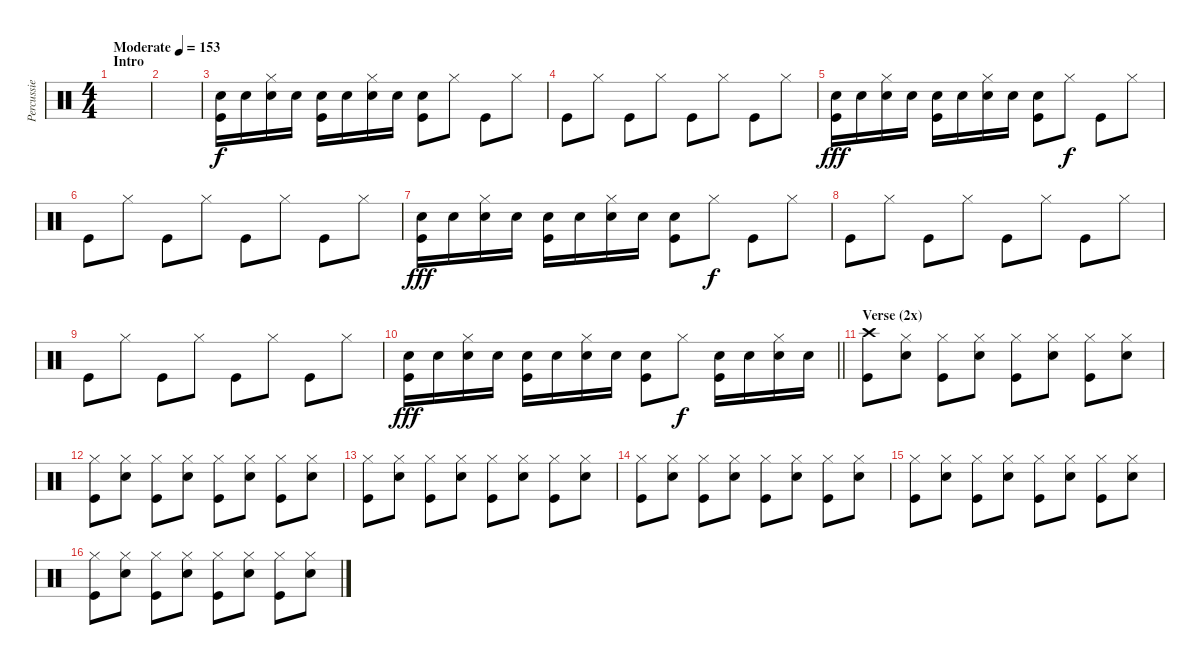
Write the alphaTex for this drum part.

\track ("Percussie George Schwindt" "Percussie ") {instrument percussion}
\staff {score}
\articulation defaults
\ts (4 4)
\section ("" "Intro")
\tempo (153 "Moderate")
\clef neutral
\ks c
|
|
("Electric Snare (hit)" "Kick (hit)").16 "Electric Snare (hit)".16 ("Electric Snare (hit)" "Hi-Hat (closed)").16 "Electric Snare (hit)".16 ("Electric Snare (hit)" "Kick (hit)").16 "Electric Snare (hit)".16 ("Electric Snare (hit)" "Hi-Hat (closed)").16 "Electric Snare (hit)".16 ("Electric Snare (hit)" "Kick (hit)").8 "Hi-Hat (closed)".8{dy f} "Kick (hit)".8 "Hi-Hat (closed)".8 |
"Kick (hit)".8 "Hi-Hat (closed)".8 "Kick (hit)".8 "Hi-Hat (closed)".8 "Kick (hit)".8 "Hi-Hat (closed)".8 "Kick (hit)".8 "Hi-Hat (closed)".8 |
("Electric Snare (hit)" "Kick (hit)").16{dy fff} "Electric Snare (hit)".16 ("Electric Snare (hit)" "Hi-Hat (closed)").16 "Electric Snare (hit)".16 ("Electric Snare (hit)" "Kick (hit)").16 "Electric Snare (hit)".16 ("Electric Snare (hit)" "Hi-Hat (closed)").16 "Electric Snare (hit)".16 ("Electric Snare (hit)" "Kick (hit)").8 "Hi-Hat (closed)".8{dy f} "Kick (hit)".8 "Hi-Hat (closed)".8 |
"Kick (hit)".8 "Hi-Hat (closed)".8 "Kick (hit)".8 "Hi-Hat (closed)".8 "Kick (hit)".8 "Hi-Hat (closed)".8 "Kick (hit)".8 "Hi-Hat (closed)".8 |
("Electric Snare (hit)" "Kick (hit)").16{dy fff} "Electric Snare (hit)".16 ("Electric Snare (hit)" "Hi-Hat (closed)").16 "Electric Snare (hit)".16 ("Electric Snare (hit)" "Kick (hit)").16 "Electric Snare (hit)".16 ("Electric Snare (hit)" "Hi-Hat (closed)").16 "Electric Snare (hit)".16 ("Electric Snare (hit)" "Kick (hit)").8 "Hi-Hat (closed)".8{dy f} "Kick (hit)".8 "Hi-Hat (closed)".8 |
"Kick (hit)".8 "Hi-Hat (closed)".8 "Kick (hit)".8 "Hi-Hat (closed)".8 "Kick (hit)".8 "Hi-Hat (closed)".8 "Kick (hit)".8 "Hi-Hat (closed)".8 |
"Kick (hit)".8 "Hi-Hat (closed)".8 "Kick (hit)".8 "Hi-Hat (closed)".8 "Kick (hit)".8 "Hi-Hat (closed)".8 "Kick (hit)".8 "Hi-Hat (closed)".8 |
\barLineRight lightlight
("Electric Snare (hit)" "Kick (hit)").16{dy fff} "Electric Snare (hit)".16 ("Electric Snare (hit)" "Hi-Hat (closed)").16 "Electric Snare (hit)".16 ("Electric Snare (hit)" "Kick (hit)").16 "Electric Snare (hit)".16 ("Electric Snare (hit)" "Hi-Hat (closed)").16 "Electric Snare (hit)".16 ("Electric Snare (hit)" "Kick (hit)").8 "Hi-Hat (closed)".8{dy f} ("Electric Snare (hit)" "Kick (hit)").16 "Electric Snare (hit)".16 ("Electric Snare (hit)" "Hi-Hat (closed)").16 "Electric Snare (hit)".16 |
\section ("" "Verse (2x)")
("Crash high (hit)" "Kick (hit)").8 ("Electric Snare (hit)" "Hi-Hat (closed)").8 ("Hi-Hat (closed)" "Kick (hit)").8 ("Electric Snare (hit)" "Hi-Hat (closed)").8 ("Hi-Hat (closed)" "Kick (hit)").8 ("Electric Snare (hit)" "Hi-Hat (closed)").8 ("Hi-Hat (closed)" "Kick (hit)").8 ("Electric Snare (hit)" "Hi-Hat (closed)").8 |
("Hi-Hat (closed)" "Kick (hit)").8 ("Electric Snare (hit)" "Hi-Hat (closed)").8 ("Hi-Hat (closed)" "Kick (hit)").8 ("Electric Snare (hit)" "Hi-Hat (closed)").8 ("Hi-Hat (closed)" "Kick (hit)").8 ("Electric Snare (hit)" "Hi-Hat (closed)").8 ("Hi-Hat (closed)" "Kick (hit)").8 ("Electric Snare (hit)" "Hi-Hat (closed)").8 |
("Hi-Hat (closed)" "Kick (hit)").8 ("Electric Snare (hit)" "Hi-Hat (closed)").8 ("Hi-Hat (closed)" "Kick (hit)").8 ("Electric Snare (hit)" "Hi-Hat (closed)").8 ("Hi-Hat (closed)" "Kick (hit)").8 ("Electric Snare (hit)" "Hi-Hat (closed)").8 ("Hi-Hat (closed)" "Kick (hit)").8 ("Electric Snare (hit)" "Hi-Hat (closed)").8 |
("Hi-Hat (closed)" "Kick (hit)").8 ("Electric Snare (hit)" "Hi-Hat (closed)").8 ("Hi-Hat (closed)" "Kick (hit)").8 ("Electric Snare (hit)" "Hi-Hat (closed)").8 ("Hi-Hat (closed)" "Kick (hit)").8 ("Electric Snare (hit)" "Hi-Hat (closed)").8 ("Hi-Hat (closed)" "Kick (hit)").8 ("Electric Snare (hit)" "Hi-Hat (closed)").8 |
("Hi-Hat (closed)" "Kick (hit)").8 ("Electric Snare (hit)" "Hi-Hat (closed)").8 ("Hi-Hat (closed)" "Kick (hit)").8 ("Electric Snare (hit)" "Hi-Hat (closed)").8 ("Hi-Hat (closed)" "Kick (hit)").8 ("Electric Snare (hit)" "Hi-Hat (closed)").8 ("Hi-Hat (closed)" "Kick (hit)").8 ("Electric Snare (hit)" "Hi-Hat (closed)").8 |
("Hi-Hat (closed)" "Kick (hit)").8 ("Electric Snare (hit)" "Hi-Hat (closed)").8 ("Hi-Hat (closed)" "Kick (hit)").8 ("Electric Snare (hit)" "Hi-Hat (closed)").8 ("Hi-Hat (closed)" "Kick (hit)").8 ("Electric Snare (hit)" "Hi-Hat (closed)").8 ("Hi-Hat (closed)" "Kick (hit)").8 ("Electric Snare (hit)" "Hi-Hat (closed)").8
